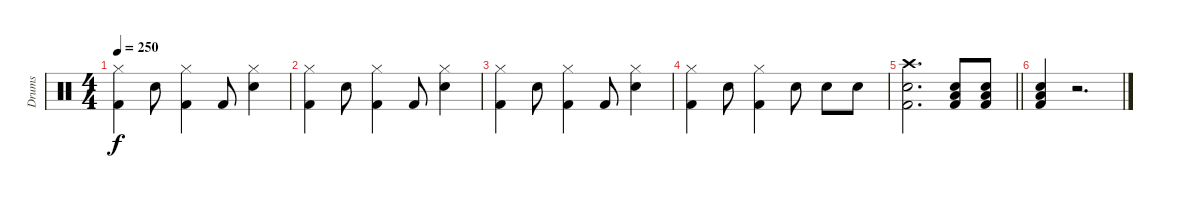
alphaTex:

\track ("Drums" "Drums") {instrument percussion}
\staff {score}
\articulation defaults
\ts (4 4)
\tempo 250
\clef neutral
\ks c
("Hi-Hat (closed)" "Kick (hit) 2").4{dy f} "Snare (hit) 2".8 ("Hi-Hat (closed)" "Kick (hit) 2").4 "Kick (hit) 2".8 ("Hi-Hat (closed)" "Snare (hit) 2").4 |
("Hi-Hat (closed)" "Kick (hit) 2").4 "Snare (hit) 2".8 ("Hi-Hat (closed)" "Kick (hit) 2").4 "Kick (hit) 2".8 ("Hi-Hat (closed)" "Snare (hit) 2").4 |
("Hi-Hat (closed)" "Kick (hit) 2").4 "Snare (hit) 2".8 ("Hi-Hat (closed)" "Kick (hit) 2").4 "Kick (hit) 2".8 ("Hi-Hat (closed)" "Snare (hit) 2").4 |
("Hi-Hat (closed)" "Kick (hit) 2").4 "Snare (hit) 2".8 ("Hi-Hat (closed)" "Kick (hit) 2").4 "Snare (hit) 2".8 "Snare (hit) 2".8 "Snare (hit) 2".8 |
\barLineRight lightlight
("Crash high (hit)" "Snare (hit) 2" "Kick (hit) 2").2{d} ("Snare (hit) 2" "Low Tom (hit)" "Kick (hit) 2").8 ("Snare (hit) 2" "Low Tom (hit)" "Kick (hit) 2").8 |
("Snare (hit) 2" "Low Tom (hit)" "Kick (hit) 2").4 r.2{d}
